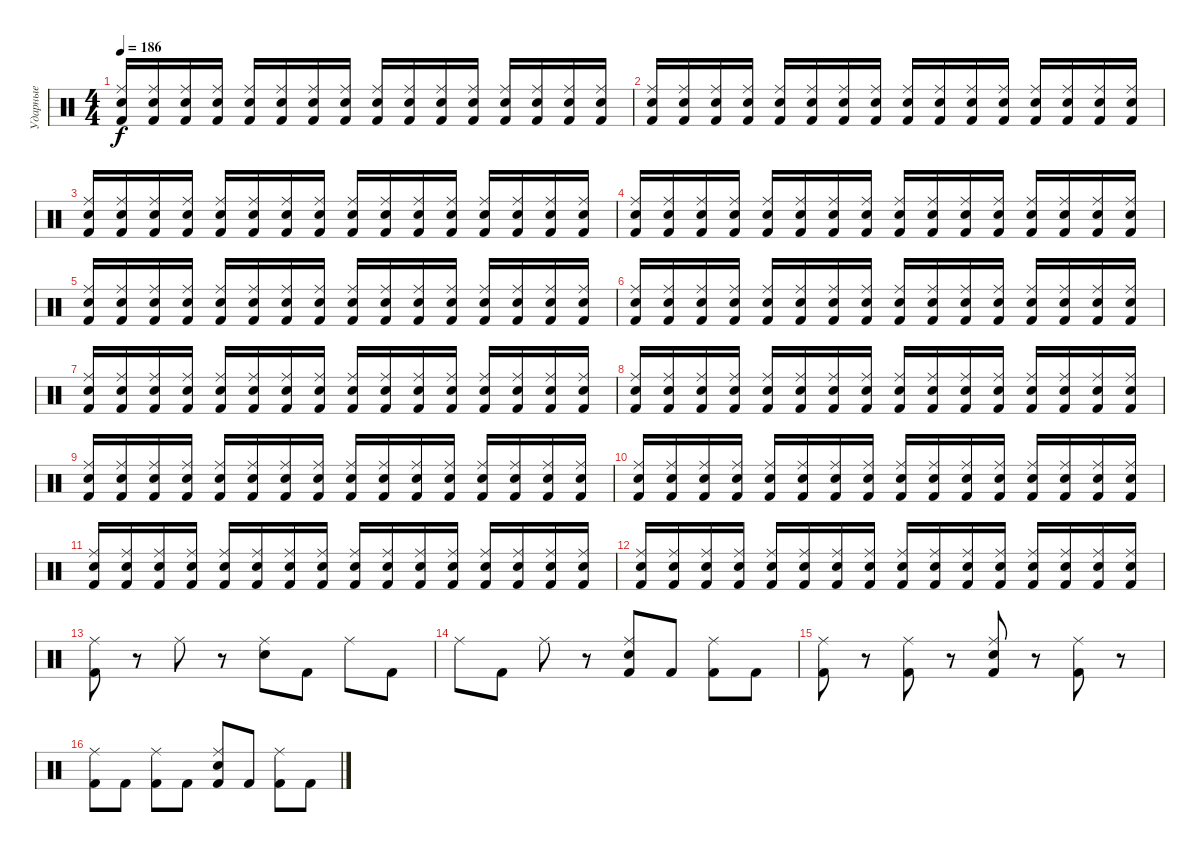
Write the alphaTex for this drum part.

\track ("Ударные" "Ударные") {instrument percussion}
\staff {score}
\articulation defaults
\ts (4 4)
\tempo 186
\clef neutral
\ks c
("Kick (hit) 2" "Ride (middle)" "Snare (hit) 2").16{dy f} ("Kick (hit) 2" "Ride (middle)" "Snare (hit) 2").16 ("Kick (hit) 2" "Ride (middle)" "Snare (hit) 2").16 ("Kick (hit) 2" "Ride (middle)" "Snare (hit) 2").16 ("Kick (hit) 2" "Ride (middle)" "Snare (hit) 2").16 ("Kick (hit) 2" "Ride (middle)" "Snare (hit) 2").16 ("Kick (hit) 2" "Ride (middle)" "Snare (hit) 2").16 ("Kick (hit) 2" "Ride (middle)" "Snare (hit) 2").16 ("Kick (hit) 2" "Ride (middle)" "Snare (hit) 2").16 ("Kick (hit) 2" "Ride (middle)" "Snare (hit) 2").16 ("Kick (hit) 2" "Ride (middle)" "Snare (hit) 2").16 ("Kick (hit) 2" "Ride (middle)" "Snare (hit) 2").16 ("Kick (hit) 2" "Ride (middle)" "Snare (hit) 2").16 ("Kick (hit) 2" "Ride (middle)" "Snare (hit) 2").16 ("Kick (hit) 2" "Ride (middle)" "Snare (hit) 2").16 ("Kick (hit) 2" "Ride (middle)" "Snare (hit) 2").16 |
("Kick (hit) 2" "Ride (middle)" "Snare (hit) 2").16 ("Kick (hit) 2" "Ride (middle)" "Snare (hit) 2").16 ("Kick (hit) 2" "Ride (middle)" "Snare (hit) 2").16 ("Kick (hit) 2" "Ride (middle)" "Snare (hit) 2").16 ("Kick (hit) 2" "Ride (middle)" "Snare (hit) 2").16 ("Kick (hit) 2" "Ride (middle)" "Snare (hit) 2").16 ("Kick (hit) 2" "Ride (middle)" "Snare (hit) 2").16 ("Kick (hit) 2" "Ride (middle)" "Snare (hit) 2").16 ("Kick (hit) 2" "Ride (middle)" "Snare (hit) 2").16 ("Kick (hit) 2" "Ride (middle)" "Snare (hit) 2").16 ("Kick (hit) 2" "Ride (middle)" "Snare (hit) 2").16 ("Kick (hit) 2" "Ride (middle)" "Snare (hit) 2").16 ("Kick (hit) 2" "Ride (middle)" "Snare (hit) 2").16 ("Kick (hit) 2" "Ride (middle)" "Snare (hit) 2").16 ("Kick (hit) 2" "Ride (middle)" "Snare (hit) 2").16 ("Kick (hit) 2" "Ride (middle)" "Snare (hit) 2").16 |
("Kick (hit) 2" "Ride (middle)" "Snare (hit) 2").16 ("Kick (hit) 2" "Ride (middle)" "Snare (hit) 2").16 ("Kick (hit) 2" "Ride (middle)" "Snare (hit) 2").16 ("Kick (hit) 2" "Ride (middle)" "Snare (hit) 2").16 ("Kick (hit) 2" "Ride (middle)" "Snare (hit) 2").16 ("Kick (hit) 2" "Ride (middle)" "Snare (hit) 2").16 ("Kick (hit) 2" "Ride (middle)" "Snare (hit) 2").16 ("Kick (hit) 2" "Ride (middle)" "Snare (hit) 2").16 ("Kick (hit) 2" "Ride (middle)" "Snare (hit) 2").16 ("Kick (hit) 2" "Ride (middle)" "Snare (hit) 2").16 ("Kick (hit) 2" "Ride (middle)" "Snare (hit) 2").16 ("Kick (hit) 2" "Ride (middle)" "Snare (hit) 2").16 ("Kick (hit) 2" "Ride (middle)" "Snare (hit) 2").16 ("Kick (hit) 2" "Ride (middle)" "Snare (hit) 2").16 ("Kick (hit) 2" "Ride (middle)" "Snare (hit) 2").16 ("Kick (hit) 2" "Ride (middle)" "Snare (hit) 2").16 |
("Kick (hit) 2" "Ride (middle)" "Snare (hit) 2").16 ("Kick (hit) 2" "Ride (middle)" "Snare (hit) 2").16 ("Kick (hit) 2" "Ride (middle)" "Snare (hit) 2").16 ("Kick (hit) 2" "Ride (middle)" "Snare (hit) 2").16 ("Kick (hit) 2" "Ride (middle)" "Snare (hit) 2").16 ("Kick (hit) 2" "Ride (middle)" "Snare (hit) 2").16 ("Kick (hit) 2" "Ride (middle)" "Snare (hit) 2").16 ("Kick (hit) 2" "Ride (middle)" "Snare (hit) 2").16 ("Kick (hit) 2" "Ride (middle)" "Snare (hit) 2").16 ("Kick (hit) 2" "Ride (middle)" "Snare (hit) 2").16 ("Kick (hit) 2" "Ride (middle)" "Snare (hit) 2").16 ("Kick (hit) 2" "Ride (middle)" "Snare (hit) 2").16 ("Kick (hit) 2" "Ride (middle)" "Snare (hit) 2").16 ("Kick (hit) 2" "Ride (middle)" "Snare (hit) 2").16 ("Kick (hit) 2" "Ride (middle)" "Snare (hit) 2").16 ("Kick (hit) 2" "Ride (middle)" "Snare (hit) 2").16 |
("Kick (hit) 2" "Ride (middle)" "Snare (hit) 2").16 ("Kick (hit) 2" "Ride (middle)" "Snare (hit) 2").16 ("Kick (hit) 2" "Ride (middle)" "Snare (hit) 2").16 ("Kick (hit) 2" "Ride (middle)" "Snare (hit) 2").16 ("Kick (hit) 2" "Ride (middle)" "Snare (hit) 2").16 ("Kick (hit) 2" "Ride (middle)" "Snare (hit) 2").16 ("Kick (hit) 2" "Ride (middle)" "Snare (hit) 2").16 ("Kick (hit) 2" "Ride (middle)" "Snare (hit) 2").16 ("Kick (hit) 2" "Ride (middle)" "Snare (hit) 2").16 ("Kick (hit) 2" "Ride (middle)" "Snare (hit) 2").16 ("Kick (hit) 2" "Ride (middle)" "Snare (hit) 2").16 ("Kick (hit) 2" "Ride (middle)" "Snare (hit) 2").16 ("Kick (hit) 2" "Ride (middle)" "Snare (hit) 2").16 ("Kick (hit) 2" "Ride (middle)" "Snare (hit) 2").16 ("Kick (hit) 2" "Ride (middle)" "Snare (hit) 2").16 ("Kick (hit) 2" "Ride (middle)" "Snare (hit) 2").16 |
("Kick (hit) 2" "Ride (middle)" "Snare (hit) 2").16 ("Kick (hit) 2" "Ride (middle)" "Snare (hit) 2").16 ("Kick (hit) 2" "Ride (middle)" "Snare (hit) 2").16 ("Kick (hit) 2" "Ride (middle)" "Snare (hit) 2").16 ("Kick (hit) 2" "Ride (middle)" "Snare (hit) 2").16 ("Kick (hit) 2" "Ride (middle)" "Snare (hit) 2").16 ("Kick (hit) 2" "Ride (middle)" "Snare (hit) 2").16 ("Kick (hit) 2" "Ride (middle)" "Snare (hit) 2").16 ("Kick (hit) 2" "Ride (middle)" "Snare (hit) 2").16 ("Kick (hit) 2" "Ride (middle)" "Snare (hit) 2").16 ("Kick (hit) 2" "Ride (middle)" "Snare (hit) 2").16 ("Kick (hit) 2" "Ride (middle)" "Snare (hit) 2").16 ("Kick (hit) 2" "Ride (middle)" "Snare (hit) 2").16 ("Kick (hit) 2" "Ride (middle)" "Snare (hit) 2").16 ("Kick (hit) 2" "Ride (middle)" "Snare (hit) 2").16 ("Kick (hit) 2" "Ride (middle)" "Snare (hit) 2").16 |
("Kick (hit) 2" "Ride (middle)" "Snare (hit) 2").16 ("Kick (hit) 2" "Ride (middle)" "Snare (hit) 2").16 ("Kick (hit) 2" "Ride (middle)" "Snare (hit) 2").16 ("Kick (hit) 2" "Ride (middle)" "Snare (hit) 2").16 ("Kick (hit) 2" "Ride (middle)" "Snare (hit) 2").16 ("Kick (hit) 2" "Ride (middle)" "Snare (hit) 2").16 ("Kick (hit) 2" "Ride (middle)" "Snare (hit) 2").16 ("Kick (hit) 2" "Ride (middle)" "Snare (hit) 2").16 ("Kick (hit) 2" "Ride (middle)" "Snare (hit) 2").16 ("Kick (hit) 2" "Ride (middle)" "Snare (hit) 2").16 ("Kick (hit) 2" "Ride (middle)" "Snare (hit) 2").16 ("Kick (hit) 2" "Ride (middle)" "Snare (hit) 2").16 ("Kick (hit) 2" "Ride (middle)" "Snare (hit) 2").16 ("Kick (hit) 2" "Ride (middle)" "Snare (hit) 2").16 ("Kick (hit) 2" "Ride (middle)" "Snare (hit) 2").16 ("Kick (hit) 2" "Ride (middle)" "Snare (hit) 2").16 |
("Kick (hit) 2" "Ride (middle)" "Snare (hit) 2").16 ("Kick (hit) 2" "Ride (middle)" "Snare (hit) 2").16 ("Kick (hit) 2" "Ride (middle)" "Snare (hit) 2").16 ("Kick (hit) 2" "Ride (middle)" "Snare (hit) 2").16 ("Kick (hit) 2" "Ride (middle)" "Snare (hit) 2").16 ("Kick (hit) 2" "Ride (middle)" "Snare (hit) 2").16 ("Kick (hit) 2" "Ride (middle)" "Snare (hit) 2").16 ("Kick (hit) 2" "Ride (middle)" "Snare (hit) 2").16 ("Kick (hit) 2" "Ride (middle)" "Snare (hit) 2").16 ("Kick (hit) 2" "Ride (middle)" "Snare (hit) 2").16 ("Kick (hit) 2" "Ride (middle)" "Snare (hit) 2").16 ("Kick (hit) 2" "Ride (middle)" "Snare (hit) 2").16 ("Kick (hit) 2" "Ride (middle)" "Snare (hit) 2").16 ("Kick (hit) 2" "Ride (middle)" "Snare (hit) 2").16 ("Kick (hit) 2" "Ride (middle)" "Snare (hit) 2").16 ("Kick (hit) 2" "Ride (middle)" "Snare (hit) 2").16 |
("Kick (hit) 2" "Ride (middle)" "Snare (hit) 2").16 ("Kick (hit) 2" "Ride (middle)" "Snare (hit) 2").16 ("Kick (hit) 2" "Ride (middle)" "Snare (hit) 2").16 ("Kick (hit) 2" "Ride (middle)" "Snare (hit) 2").16 ("Kick (hit) 2" "Ride (middle)" "Snare (hit) 2").16 ("Kick (hit) 2" "Ride (middle)" "Snare (hit) 2").16 ("Kick (hit) 2" "Ride (middle)" "Snare (hit) 2").16 ("Kick (hit) 2" "Ride (middle)" "Snare (hit) 2").16 ("Kick (hit) 2" "Ride (middle)" "Snare (hit) 2").16 ("Kick (hit) 2" "Ride (middle)" "Snare (hit) 2").16 ("Kick (hit) 2" "Ride (middle)" "Snare (hit) 2").16 ("Kick (hit) 2" "Ride (middle)" "Snare (hit) 2").16 ("Kick (hit) 2" "Ride (middle)" "Snare (hit) 2").16 ("Kick (hit) 2" "Ride (middle)" "Snare (hit) 2").16 ("Kick (hit) 2" "Ride (middle)" "Snare (hit) 2").16 ("Kick (hit) 2" "Ride (middle)" "Snare (hit) 2").16 |
("Kick (hit) 2" "Ride (middle)" "Snare (hit) 2").16 ("Kick (hit) 2" "Ride (middle)" "Snare (hit) 2").16 ("Kick (hit) 2" "Ride (middle)" "Snare (hit) 2").16 ("Kick (hit) 2" "Ride (middle)" "Snare (hit) 2").16 ("Kick (hit) 2" "Ride (middle)" "Snare (hit) 2").16 ("Kick (hit) 2" "Ride (middle)" "Snare (hit) 2").16 ("Kick (hit) 2" "Ride (middle)" "Snare (hit) 2").16 ("Kick (hit) 2" "Ride (middle)" "Snare (hit) 2").16 ("Kick (hit) 2" "Ride (middle)" "Snare (hit) 2").16 ("Kick (hit) 2" "Ride (middle)" "Snare (hit) 2").16 ("Kick (hit) 2" "Ride (middle)" "Snare (hit) 2").16 ("Kick (hit) 2" "Ride (middle)" "Snare (hit) 2").16 ("Kick (hit) 2" "Ride (middle)" "Snare (hit) 2").16 ("Kick (hit) 2" "Ride (middle)" "Snare (hit) 2").16 ("Kick (hit) 2" "Ride (middle)" "Snare (hit) 2").16 ("Kick (hit) 2" "Ride (middle)" "Snare (hit) 2").16 |
("Kick (hit) 2" "Ride (middle)" "Snare (hit) 2").16 ("Kick (hit) 2" "Ride (middle)" "Snare (hit) 2").16 ("Kick (hit) 2" "Ride (middle)" "Snare (hit) 2").16 ("Kick (hit) 2" "Ride (middle)" "Snare (hit) 2").16 ("Kick (hit) 2" "Ride (middle)" "Snare (hit) 2").16 ("Kick (hit) 2" "Ride (middle)" "Snare (hit) 2").16 ("Kick (hit) 2" "Ride (middle)" "Snare (hit) 2").16 ("Kick (hit) 2" "Ride (middle)" "Snare (hit) 2").16 ("Kick (hit) 2" "Ride (middle)" "Snare (hit) 2").16 ("Kick (hit) 2" "Ride (middle)" "Snare (hit) 2").16 ("Kick (hit) 2" "Ride (middle)" "Snare (hit) 2").16 ("Kick (hit) 2" "Ride (middle)" "Snare (hit) 2").16 ("Kick (hit) 2" "Ride (middle)" "Snare (hit) 2").16 ("Kick (hit) 2" "Ride (middle)" "Snare (hit) 2").16 ("Kick (hit) 2" "Ride (middle)" "Snare (hit) 2").16 ("Kick (hit) 2" "Ride (middle)" "Snare (hit) 2").16 |
("Kick (hit) 2" "Ride (middle)" "Snare (hit) 2").16 ("Kick (hit) 2" "Ride (middle)" "Snare (hit) 2").16 ("Kick (hit) 2" "Ride (middle)" "Snare (hit) 2").16 ("Kick (hit) 2" "Ride (middle)" "Snare (hit) 2").16 ("Kick (hit) 2" "Ride (middle)" "Snare (hit) 2").16 ("Kick (hit) 2" "Ride (middle)" "Snare (hit) 2").16 ("Kick (hit) 2" "Ride (middle)" "Snare (hit) 2").16 ("Kick (hit) 2" "Ride (middle)" "Snare (hit) 2").16 ("Kick (hit) 2" "Ride (middle)" "Snare (hit) 2").16 ("Kick (hit) 2" "Ride (middle)" "Snare (hit) 2").16 ("Kick (hit) 2" "Ride (middle)" "Snare (hit) 2").16 ("Kick (hit) 2" "Ride (middle)" "Snare (hit) 2").16 ("Kick (hit) 2" "Ride (middle)" "Snare (hit) 2").16 ("Kick (hit) 2" "Ride (middle)" "Snare (hit) 2").16 ("Kick (hit) 2" "Ride (middle)" "Snare (hit) 2").16 ("Kick (hit) 2" "Ride (middle)" "Snare (hit) 2").16 |
("Kick (hit) 2" "Ride (middle)").8 r.8 "Ride (middle)".8 r.8 ("Snare (hit) 2" "Ride (middle)").8 "Kick (hit) 2".8 "Ride (middle)".8 "Kick (hit) 2".8 |
"Ride (middle)".8 "Kick (hit) 2".8 "Ride (middle)".8 r.8 ("Kick (hit) 2" "Snare (hit) 2" "Ride (middle)").8 "Kick (hit) 2".8 ("Kick (hit) 2" "Ride (middle)").8 "Kick (hit) 2".8 |
("Kick (hit) 2" "Ride (middle)").8 r.8 ("Kick (hit) 2" "Ride (middle)").8 r.8 ("Kick (hit) 2" "Snare (hit) 2" "Ride (middle)").8 r.8 ("Kick (hit) 2" "Ride (middle)").8 r.8 |
("Kick (hit) 2" "Ride (middle)").8 "Kick (hit) 2".8 ("Kick (hit) 2" "Ride (middle)").8 "Kick (hit) 2".8 ("Kick (hit) 2" "Snare (hit) 2" "Ride (middle)").8 "Kick (hit) 2".8 ("Kick (hit) 2" "Ride (middle)").8 "Kick (hit) 2".8
